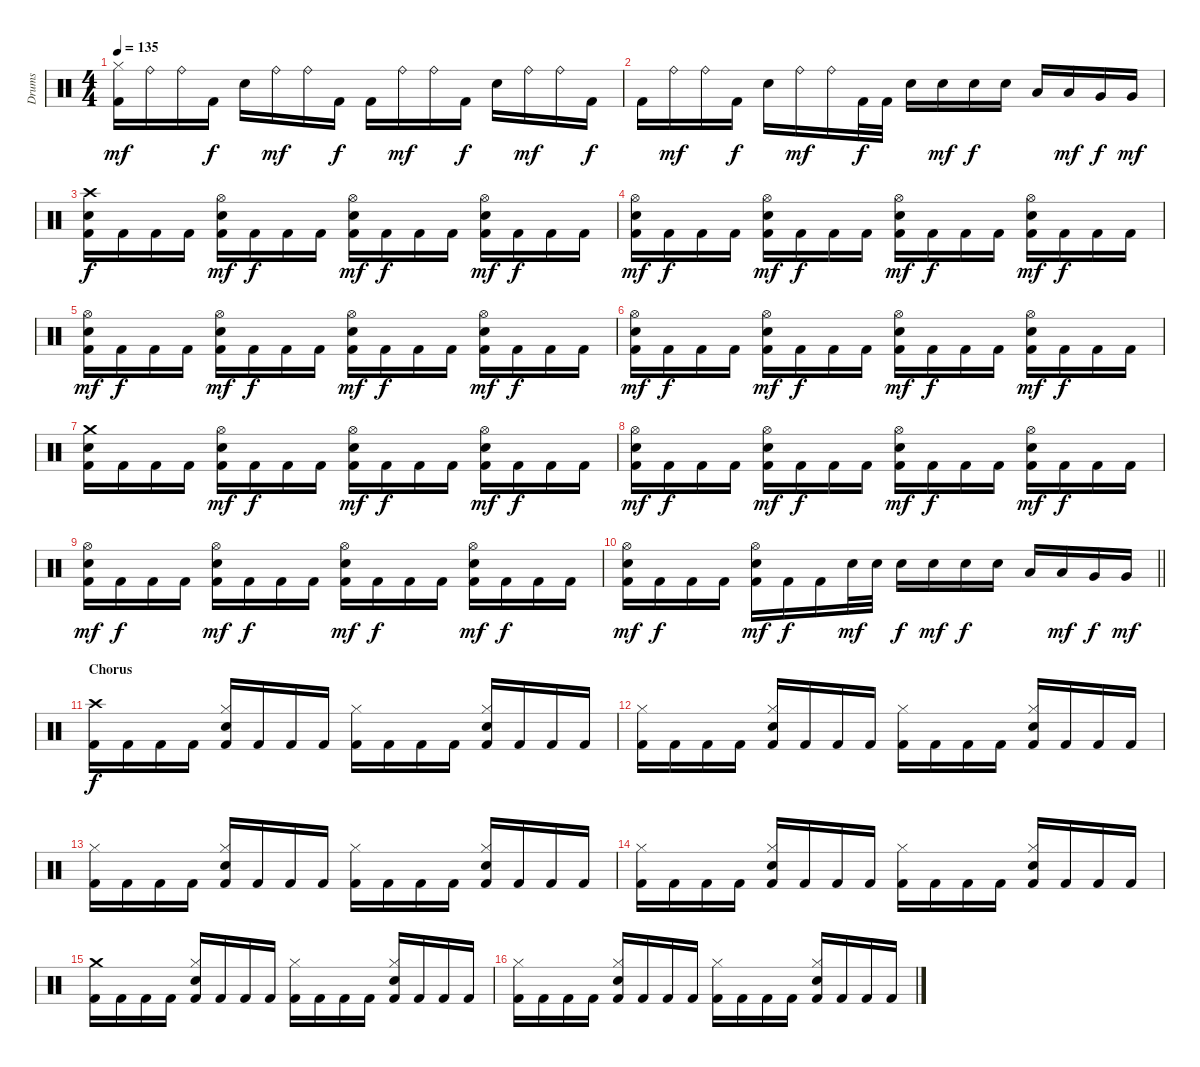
\track ("Drums" "Drums") {instrument percussion}
\staff {score}
\articulation defaults
\ts (4 4)
\tempo 135
\clef neutral
\ks c
("Kick (hit) 2" "Hi-Hat (closed)").16{dy mf} "Ride (bell)".16 "Ride (bell)".16 "Kick (hit) 2".16{dy f} "Electric Snare (hit)".16 "Ride (bell)".16{dy mf} "Ride (bell)".16 "Kick (hit) 2".16{dy f} "Kick (hit) 2".16 "Ride (bell)".16{dy mf} "Ride (bell)".16 "Kick (hit) 2".16{dy f} "Electric Snare (hit)".16 "Ride (bell)".16{dy mf} "Ride (bell)".16 "Kick (hit) 2".16{dy f} |
"Kick (hit) 2".16 "Ride (bell)".16{dy mf} "Ride (bell)".16 "Kick (hit) 2".16{dy f} "Electric Snare (hit)".16 "Ride (bell)".16{dy mf} "Ride (bell)".16 "Kick (hit) 2".32{dy f} "Kick (hit) 2".32 "Electric Snare (hit)".16 "Electric Snare (hit)".16{dy mf} "Electric Snare (hit)".16{dy f} "Electric Snare (hit)".16 "Low Tom (hit)".16 "Low Tom (hit)".16{dy mf} "Very Low Tom (hit)".16{dy f} "Very Low Tom (hit)".16{dy mf} |
("Kick (hit) 2" "Crash high (hit)" "Electric Snare (hit)").16{dy f} "Kick (hit) 2".16 "Kick (hit) 2".16 "Kick (hit) 2".16 ("Kick (hit) 2" "Hi-Hat (open)" "Electric Snare (hit)").16{dy mf} "Kick (hit) 2".16{dy f} "Kick (hit) 2".16 "Kick (hit) 2".16 ("Kick (hit) 2" "Hi-Hat (open)" "Electric Snare (hit)").16{dy mf} "Kick (hit) 2".16{dy f} "Kick (hit) 2".16 "Kick (hit) 2".16 ("Kick (hit) 2" "Hi-Hat (open)" "Electric Snare (hit)").16{dy mf} "Kick (hit) 2".16{dy f} "Kick (hit) 2".16 "Kick (hit) 2".16 |
("Kick (hit) 2" "Hi-Hat (open)" "Electric Snare (hit)").16{dy mf} "Kick (hit) 2".16{dy f} "Kick (hit) 2".16 "Kick (hit) 2".16 ("Kick (hit) 2" "Hi-Hat (open)" "Electric Snare (hit)").16{dy mf} "Kick (hit) 2".16{dy f} "Kick (hit) 2".16 "Kick (hit) 2".16 ("Kick (hit) 2" "Hi-Hat (open)" "Electric Snare (hit)").16{dy mf} "Kick (hit) 2".16{dy f} "Kick (hit) 2".16 "Kick (hit) 2".16 ("Kick (hit) 2" "Hi-Hat (open)" "Electric Snare (hit)").16{dy mf} "Kick (hit) 2".16{dy f} "Kick (hit) 2".16 "Kick (hit) 2".16 |
("Kick (hit) 2" "Hi-Hat (open)" "Electric Snare (hit)").16{dy mf} "Kick (hit) 2".16{dy f} "Kick (hit) 2".16 "Kick (hit) 2".16 ("Kick (hit) 2" "Hi-Hat (open)" "Electric Snare (hit)").16{dy mf} "Kick (hit) 2".16{dy f} "Kick (hit) 2".16 "Kick (hit) 2".16 ("Kick (hit) 2" "Hi-Hat (open)" "Electric Snare (hit)").16{dy mf} "Kick (hit) 2".16{dy f} "Kick (hit) 2".16 "Kick (hit) 2".16 ("Kick (hit) 2" "Hi-Hat (open)" "Electric Snare (hit)").16{dy mf} "Kick (hit) 2".16{dy f} "Kick (hit) 2".16 "Kick (hit) 2".16 |
("Kick (hit) 2" "Hi-Hat (open)" "Electric Snare (hit)").16{dy mf} "Kick (hit) 2".16{dy f} "Kick (hit) 2".16 "Kick (hit) 2".16 ("Kick (hit) 2" "Hi-Hat (open)" "Electric Snare (hit)").16{dy mf} "Kick (hit) 2".16{dy f} "Kick (hit) 2".16 "Kick (hit) 2".16 ("Kick (hit) 2" "Hi-Hat (open)" "Electric Snare (hit)").16{dy mf} "Kick (hit) 2".16{dy f} "Kick (hit) 2".16 "Kick (hit) 2".16 ("Kick (hit) 2" "Hi-Hat (open)" "Electric Snare (hit)").16{dy mf} "Kick (hit) 2".16{dy f} "Kick (hit) 2".16 "Kick (hit) 2".16 |
("Kick (hit) 2" "Crash medium (hit)" "Electric Snare (hit)").16 "Kick (hit) 2".16 "Kick (hit) 2".16 "Kick (hit) 2".16 ("Kick (hit) 2" "Hi-Hat (open)" "Electric Snare (hit)").16{dy mf} "Kick (hit) 2".16{dy f} "Kick (hit) 2".16 "Kick (hit) 2".16 ("Kick (hit) 2" "Hi-Hat (open)" "Electric Snare (hit)").16{dy mf} "Kick (hit) 2".16{dy f} "Kick (hit) 2".16 "Kick (hit) 2".16 ("Kick (hit) 2" "Hi-Hat (open)" "Electric Snare (hit)").16{dy mf} "Kick (hit) 2".16{dy f} "Kick (hit) 2".16 "Kick (hit) 2".16 |
("Kick (hit) 2" "Hi-Hat (open)" "Electric Snare (hit)").16{dy mf} "Kick (hit) 2".16{dy f} "Kick (hit) 2".16 "Kick (hit) 2".16 ("Kick (hit) 2" "Hi-Hat (open)" "Electric Snare (hit)").16{dy mf} "Kick (hit) 2".16{dy f} "Kick (hit) 2".16 "Kick (hit) 2".16 ("Kick (hit) 2" "Hi-Hat (open)" "Electric Snare (hit)").16{dy mf} "Kick (hit) 2".16{dy f} "Kick (hit) 2".16 "Kick (hit) 2".16 ("Kick (hit) 2" "Hi-Hat (open)" "Electric Snare (hit)").16{dy mf} "Kick (hit) 2".16{dy f} "Kick (hit) 2".16 "Kick (hit) 2".16 |
("Kick (hit) 2" "Hi-Hat (open)" "Electric Snare (hit)").16{dy mf} "Kick (hit) 2".16{dy f} "Kick (hit) 2".16 "Kick (hit) 2".16 ("Kick (hit) 2" "Hi-Hat (open)" "Electric Snare (hit)").16{dy mf} "Kick (hit) 2".16{dy f} "Kick (hit) 2".16 "Kick (hit) 2".16 ("Kick (hit) 2" "Hi-Hat (open)" "Electric Snare (hit)").16{dy mf} "Kick (hit) 2".16{dy f} "Kick (hit) 2".16 "Kick (hit) 2".16 ("Kick (hit) 2" "Hi-Hat (open)" "Electric Snare (hit)").16{dy mf} "Kick (hit) 2".16{dy f} "Kick (hit) 2".16 "Kick (hit) 2".16 |
\barLineRight lightlight
("Kick (hit) 2" "Hi-Hat (open)" "Electric Snare (hit)").16{dy mf} "Kick (hit) 2".16{dy f} "Kick (hit) 2".16 "Kick (hit) 2".16 ("Kick (hit) 2" "Hi-Hat (open)" "Electric Snare (hit)").16{dy mf} "Kick (hit) 2".16{dy f} "Kick (hit) 2".16 "Electric Snare (hit)".32{dy mf} "Electric Snare (hit)".32 "Electric Snare (hit)".16{dy f} "Electric Snare (hit)".16{dy mf} "Electric Snare (hit)".16{dy f} "Electric Snare (hit)".16 "Low Tom (hit)".16 "Low Tom (hit)".16{dy mf} "Very Low Tom (hit)".16{dy f} "Very Low Tom (hit)".16{dy mf} |
\section ("" "Chorus")
("Kick (hit) 2" "Crash high (hit)").16{dy f} "Kick (hit) 2".16 "Kick (hit) 2".16 "Kick (hit) 2".16 ("Kick (hit) 2" "Hi-Hat (closed)" "Electric Snare (hit)").16 "Kick (hit) 2".16 "Kick (hit) 2".16 "Kick (hit) 2".16 ("Kick (hit) 2" "Hi-Hat (closed)").16 "Kick (hit) 2".16 "Kick (hit) 2".16 "Kick (hit) 2".16 ("Kick (hit) 2" "Hi-Hat (closed)" "Electric Snare (hit)").16 "Kick (hit) 2".16 "Kick (hit) 2".16 "Kick (hit) 2".16 |
("Kick (hit) 2" "Hi-Hat (closed)").16 "Kick (hit) 2".16 "Kick (hit) 2".16 "Kick (hit) 2".16 ("Kick (hit) 2" "Hi-Hat (closed)" "Electric Snare (hit)").16 "Kick (hit) 2".16 "Kick (hit) 2".16 "Kick (hit) 2".16 ("Kick (hit) 2" "Hi-Hat (closed)").16 "Kick (hit) 2".16 "Kick (hit) 2".16 "Kick (hit) 2".16 ("Kick (hit) 2" "Hi-Hat (closed)" "Electric Snare (hit)").16 "Kick (hit) 2".16 "Kick (hit) 2".16 "Kick (hit) 2".16 |
("Kick (hit) 2" "Hi-Hat (closed)").16 "Kick (hit) 2".16 "Kick (hit) 2".16 "Kick (hit) 2".16 ("Kick (hit) 2" "Hi-Hat (closed)" "Electric Snare (hit)").16 "Kick (hit) 2".16 "Kick (hit) 2".16 "Kick (hit) 2".16 ("Kick (hit) 2" "Hi-Hat (closed)").16 "Kick (hit) 2".16 "Kick (hit) 2".16 "Kick (hit) 2".16 ("Kick (hit) 2" "Hi-Hat (closed)" "Electric Snare (hit)").16 "Kick (hit) 2".16 "Kick (hit) 2".16 "Kick (hit) 2".16 |
("Kick (hit) 2" "Hi-Hat (closed)").16 "Kick (hit) 2".16 "Kick (hit) 2".16 "Kick (hit) 2".16 ("Kick (hit) 2" "Hi-Hat (closed)" "Electric Snare (hit)").16 "Kick (hit) 2".16 "Kick (hit) 2".16 "Kick (hit) 2".16 ("Kick (hit) 2" "Hi-Hat (closed)").16 "Kick (hit) 2".16 "Kick (hit) 2".16 "Kick (hit) 2".16 ("Kick (hit) 2" "Hi-Hat (closed)" "Electric Snare (hit)").16 "Kick (hit) 2".16 "Kick (hit) 2".16 "Kick (hit) 2".16 |
("Kick (hit) 2" "Crash medium (hit)").16 "Kick (hit) 2".16 "Kick (hit) 2".16 "Kick (hit) 2".16 ("Kick (hit) 2" "Hi-Hat (closed)" "Electric Snare (hit)").16 "Kick (hit) 2".16 "Kick (hit) 2".16 "Kick (hit) 2".16 ("Kick (hit) 2" "Hi-Hat (closed)").16 "Kick (hit) 2".16 "Kick (hit) 2".16 "Kick (hit) 2".16 ("Kick (hit) 2" "Hi-Hat (closed)" "Electric Snare (hit)").16 "Kick (hit) 2".16 "Kick (hit) 2".16 "Kick (hit) 2".16 |
("Kick (hit) 2" "Hi-Hat (closed)").16 "Kick (hit) 2".16 "Kick (hit) 2".16 "Kick (hit) 2".16 ("Kick (hit) 2" "Hi-Hat (closed)" "Electric Snare (hit)").16 "Kick (hit) 2".16 "Kick (hit) 2".16 "Kick (hit) 2".16 ("Kick (hit) 2" "Hi-Hat (closed)").16 "Kick (hit) 2".16 "Kick (hit) 2".16 "Kick (hit) 2".16 ("Kick (hit) 2" "Hi-Hat (closed)" "Electric Snare (hit)").16 "Kick (hit) 2".16 "Kick (hit) 2".16 "Kick (hit) 2".16
